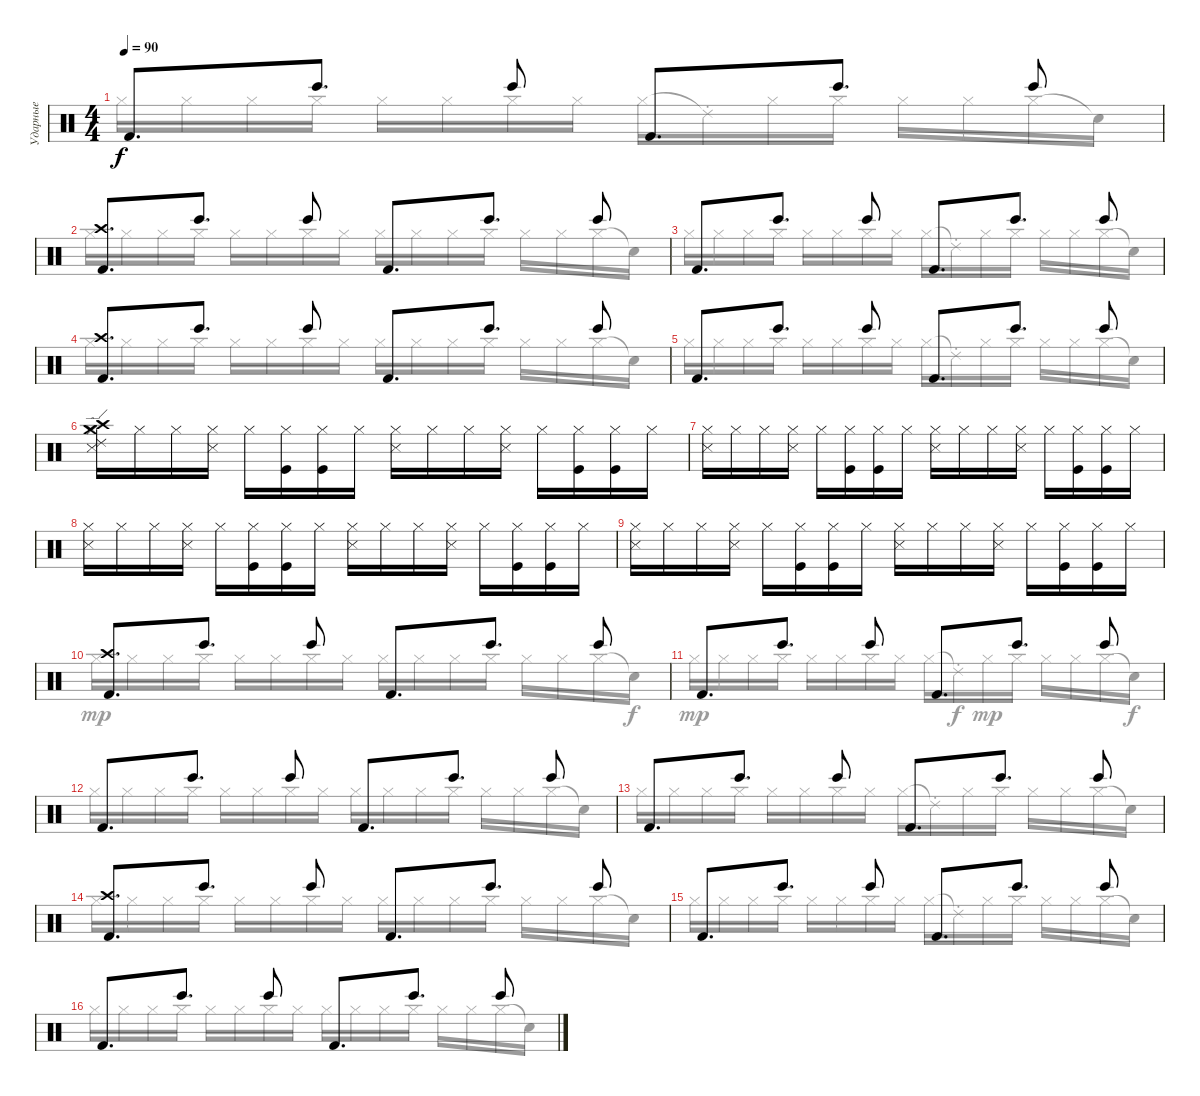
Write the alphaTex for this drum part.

\track ("Ударные" "Ударные") {instrument percussion}
\staff {score}
\articulation defaults
\voice
\ts (4 4)
\tempo 90
\clef neutral
\ks c "Kick (hit) 2".8{d dy f} "Bongo High (hit)".8{d} "Bongo High (hit)".8 "Kick (hit) 2".8{d} "Bongo High (hit)".8{d} "Bongo High (hit)".8
|
("Kick (hit) 2" "Crash high (hit)").8{d} "Bongo High (hit)".8{d} "Bongo High (hit)".8 "Kick (hit) 2".8{d} "Bongo High (hit)".8{d} "Bongo High (hit)".8 |
"Kick (hit) 2".8{d} "Bongo High (hit)".8{d} "Bongo High (hit)".8 "Kick (hit) 2".8{d} "Bongo High (hit)".8{d} "Bongo High (hit)".8 |
("Kick (hit) 2" "Crash high (hit)").8{d} "Bongo High (hit)".8{d} "Bongo High (hit)".8 "Kick (hit) 2".8{d} "Bongo High (hit)".8{d} "Bongo High (hit)".8 |
"Kick (hit) 2".8{d} "Bongo High (hit)".8{d} "Bongo High (hit)".8 "Kick (hit) 2".8{d} "Bongo High (hit)".8{d} "Bongo High (hit)".8 |
("Hi-Hat (closed)" "Metronome (hit)" "Ride (edge) 2" "Crash medium (hit)" "Crash high (hit)").16 "Hi-Hat (closed)".16 "Hi-Hat (closed)".16 ("Hi-Hat (closed)" "Metronome (hit)").16 "Hi-Hat (closed)".16 ("Hi-Hat (closed)" "Kick (hit)").16 ("Hi-Hat (closed)" "Kick (hit)").16 "Hi-Hat (closed)".16 ("Hi-Hat (closed)" "Metronome (hit)").16 "Hi-Hat (closed)".16 "Hi-Hat (closed)".16 ("Hi-Hat (closed)" "Metronome (hit)").16 "Hi-Hat (closed)".16 ("Hi-Hat (closed)" "Kick (hit)").16 ("Hi-Hat (closed)" "Kick (hit)").16 "Hi-Hat (closed)".16 |
("Hi-Hat (closed)" "Metronome (hit)").16 "Hi-Hat (closed)".16 "Hi-Hat (closed)".16 ("Hi-Hat (closed)" "Metronome (hit)").16 "Hi-Hat (closed)".16 ("Hi-Hat (closed)" "Kick (hit)").16 ("Hi-Hat (closed)" "Kick (hit)").16 "Hi-Hat (closed)".16 ("Hi-Hat (closed)" "Metronome (hit)").16 "Hi-Hat (closed)".16 "Hi-Hat (closed)".16 ("Hi-Hat (closed)" "Metronome (hit)").16 "Hi-Hat (closed)".16 ("Hi-Hat (closed)" "Kick (hit)").16 ("Hi-Hat (closed)" "Kick (hit)").16 "Hi-Hat (closed)".16 |
("Hi-Hat (closed)" "Metronome (hit)").16 "Hi-Hat (closed)".16 "Hi-Hat (closed)".16 ("Hi-Hat (closed)" "Metronome (hit)").16 "Hi-Hat (closed)".16 ("Hi-Hat (closed)" "Kick (hit)").16 ("Hi-Hat (closed)" "Kick (hit)").16 "Hi-Hat (closed)".16 ("Hi-Hat (closed)" "Metronome (hit)").16 "Hi-Hat (closed)".16 "Hi-Hat (closed)".16 ("Hi-Hat (closed)" "Metronome (hit)").16 "Hi-Hat (closed)".16 ("Hi-Hat (closed)" "Kick (hit)").16 ("Hi-Hat (closed)" "Kick (hit)").16 "Hi-Hat (closed)".16 |
("Hi-Hat (closed)" "Metronome (hit)").16 "Hi-Hat (closed)".16 "Hi-Hat (closed)".16 ("Hi-Hat (closed)" "Metronome (hit)").16 "Hi-Hat (closed)".16 ("Hi-Hat (closed)" "Kick (hit)").16 ("Hi-Hat (closed)" "Kick (hit)").16 "Hi-Hat (closed)".16 ("Hi-Hat (closed)" "Metronome (hit)").16 "Hi-Hat (closed)".16 "Hi-Hat (closed)".16 ("Hi-Hat (closed)" "Metronome (hit)").16 "Hi-Hat (closed)".16 ("Hi-Hat (closed)" "Kick (hit)").16 ("Hi-Hat (closed)" "Kick (hit)").16 "Hi-Hat (closed)".16 |
("Kick (hit) 2" "Crash high (hit)").8{d} "Bongo High (hit)".8{d} "Bongo High (hit)".8 "Kick (hit) 2".8{d} "Bongo High (hit)".8{d} "Bongo High (hit)".8 |
"Kick (hit) 2".8{d} "Bongo High (hit)".8{d} "Bongo High (hit)".8 "Kick (hit) 2".8{d} "Bongo High (hit)".8{d} "Bongo High (hit)".8 |
"Kick (hit) 2".8{d} "Bongo High (hit)".8{d} "Bongo High (hit)".8 "Kick (hit) 2".8{d} "Bongo High (hit)".8{d} "Bongo High (hit)".8 |
"Kick (hit) 2".8{d} "Bongo High (hit)".8{d} "Bongo High (hit)".8 "Kick (hit) 2".8{d} "Bongo High (hit)".8{d} "Bongo High (hit)".8 |
("Kick (hit) 2" "Crash high (hit)").8{d} "Bongo High (hit)".8{d} "Bongo High (hit)".8 "Kick (hit) 2".8{d} "Bongo High (hit)".8{d} "Bongo High (hit)".8 |
"Kick (hit) 2".8{d} "Bongo High (hit)".8{d} "Bongo High (hit)".8 "Kick (hit) 2".8{d} "Bongo High (hit)".8{d} "Bongo High (hit)".8 |
"Kick (hit) 2".8{d} "Bongo High (hit)".8{d} "Bongo High (hit)".8 "Kick (hit) 2".8{d} "Bongo High (hit)".8{d} "Bongo High (hit)".8
\voice
\clef neutral
\ottava regular
\simile none
\ks c "Hi-Hat (closed)".16{dy f} "Hi-Hat (closed)".16 "Hi-Hat (closed)".16 "Hi-Hat (closed)".16 "Hi-Hat (closed)".16 "Hi-Hat (closed)".16 "Hi-Hat (closed)".16 "Hi-Hat (closed)".16 "Hi-Hat (closed)".16 "Ride (choke) 2"{t}.16 "Hi-Hat (closed)".16 "Hi-Hat (closed)".16 "Hi-Hat (closed)".16 "Hi-Hat (closed)".16 "Hi-Hat (closed)".16 "Snare (hit)"{t}.16
|
"Hi-Hat (closed)".16 "Hi-Hat (closed)".16 "Hi-Hat (closed)".16 "Hi-Hat (closed)".16 "Hi-Hat (closed)".16 "Hi-Hat (closed)".16 "Hi-Hat (closed)".16 "Hi-Hat (closed)".16 "Hi-Hat (closed)".16 "Hi-Hat (closed)".16 "Hi-Hat (closed)".16 "Hi-Hat (closed)".16 "Hi-Hat (closed)".16 "Hi-Hat (closed)".16 "Hi-Hat (closed)".16 "Snare (hit)"{t}.16 |
"Hi-Hat (closed)".16 "Hi-Hat (closed)".16 "Hi-Hat (closed)".16 "Hi-Hat (closed)".16 "Hi-Hat (closed)".16 "Hi-Hat (closed)".16 "Hi-Hat (closed)".16 "Hi-Hat (closed)".16 "Hi-Hat (closed)".16 "Ride (choke) 2"{t}.16 "Hi-Hat (closed)".16 "Hi-Hat (closed)".16 "Hi-Hat (closed)".16 "Hi-Hat (closed)".16 "Hi-Hat (closed)".16 "Snare (hit)"{t}.16 |
"Hi-Hat (closed)".16 "Hi-Hat (closed)".16 "Hi-Hat (closed)".16 "Hi-Hat (closed)".16 "Hi-Hat (closed)".16 "Hi-Hat (closed)".16 "Hi-Hat (closed)".16 "Hi-Hat (closed)".16 "Hi-Hat (closed)".16 "Hi-Hat (closed)".16 "Hi-Hat (closed)".16 "Hi-Hat (closed)".16 "Hi-Hat (closed)".16 "Hi-Hat (closed)".16 "Hi-Hat (closed)".16 "Snare (hit)"{t}.16 |
"Hi-Hat (closed)".16 "Hi-Hat (closed)".16 "Hi-Hat (closed)".16 "Hi-Hat (closed)".16 "Hi-Hat (closed)".16 "Hi-Hat (closed)".16 "Hi-Hat (closed)".16 "Hi-Hat (closed)".16 "Hi-Hat (closed)".16 "Ride (choke) 2"{t}.16 "Hi-Hat (closed)".16 "Hi-Hat (closed)".16 "Hi-Hat (closed)".16 "Hi-Hat (closed)".16 "Hi-Hat (closed)".16 "Snare (hit)"{t}.16 |
|
|
|
|
"Hi-Hat (closed)".16{dy mp} "Hi-Hat (closed)".16 "Hi-Hat (closed)".16 "Hi-Hat (closed)".16 "Hi-Hat (closed)".16 "Hi-Hat (closed)".16 "Hi-Hat (closed)".16 "Hi-Hat (closed)".16 "Hi-Hat (closed)".16 "Hi-Hat (closed)".16 "Hi-Hat (closed)".16 "Hi-Hat (closed)".16 "Hi-Hat (closed)".16 "Hi-Hat (closed)".16 "Hi-Hat (closed)".16 "Snare (hit)"{t}.16{dy f} |
"Hi-Hat (closed)".16{dy mp} "Hi-Hat (closed)".16 "Hi-Hat (closed)".16 "Hi-Hat (closed)".16 "Hi-Hat (closed)".16 "Hi-Hat (closed)".16 "Hi-Hat (closed)".16 "Hi-Hat (closed)".16 "Hi-Hat (closed)".16 "Ride (choke) 2"{t}.16{dy f} "Hi-Hat (closed)".16{dy mp} "Hi-Hat (closed)".16 "Hi-Hat (closed)".16 "Hi-Hat (closed)".16 "Hi-Hat (closed)".16 "Snare (hit)"{t}.16{dy f} |
"Hi-Hat (closed)".16 "Hi-Hat (closed)".16 "Hi-Hat (closed)".16 "Hi-Hat (closed)".16 "Hi-Hat (closed)".16 "Hi-Hat (closed)".16 "Hi-Hat (closed)".16 "Hi-Hat (closed)".16 "Hi-Hat (closed)".16 "Hi-Hat (closed)".16 "Hi-Hat (closed)".16 "Hi-Hat (closed)".16 "Hi-Hat (closed)".16 "Hi-Hat (closed)".16 "Hi-Hat (closed)".16 "Snare (hit)"{t}.16 |
"Hi-Hat (closed)".16 "Hi-Hat (closed)".16 "Hi-Hat (closed)".16 "Hi-Hat (closed)".16 "Hi-Hat (closed)".16 "Hi-Hat (closed)".16 "Hi-Hat (closed)".16 "Hi-Hat (closed)".16 "Hi-Hat (closed)".16 "Ride (choke) 2"{t}.16 "Hi-Hat (closed)".16 "Hi-Hat (closed)".16 "Hi-Hat (closed)".16 "Hi-Hat (closed)".16 "Hi-Hat (closed)".16 "Snare (hit)"{t}.16 |
"Hi-Hat (closed)".16 "Hi-Hat (closed)".16 "Hi-Hat (closed)".16 "Hi-Hat (closed)".16 "Hi-Hat (closed)".16 "Hi-Hat (closed)".16 "Hi-Hat (closed)".16 "Hi-Hat (closed)".16 "Hi-Hat (closed)".16 "Hi-Hat (closed)".16 "Hi-Hat (closed)".16 "Hi-Hat (closed)".16 "Hi-Hat (closed)".16 "Hi-Hat (closed)".16 "Hi-Hat (closed)".16 "Snare (hit)"{t}.16 |
"Hi-Hat (closed)".16 "Hi-Hat (closed)".16 "Hi-Hat (closed)".16 "Hi-Hat (closed)".16 "Hi-Hat (closed)".16 "Hi-Hat (closed)".16 "Hi-Hat (closed)".16 "Hi-Hat (closed)".16 "Hi-Hat (closed)".16 "Ride (choke) 2"{t}.16 "Hi-Hat (closed)".16 "Hi-Hat (closed)".16 "Hi-Hat (closed)".16 "Hi-Hat (closed)".16 "Hi-Hat (closed)".16 "Snare (hit)"{t}.16 |
"Hi-Hat (closed)".16 "Hi-Hat (closed)".16 "Hi-Hat (closed)".16 "Hi-Hat (closed)".16 "Hi-Hat (closed)".16 "Hi-Hat (closed)".16 "Hi-Hat (closed)".16 "Hi-Hat (closed)".16 "Hi-Hat (closed)".16 "Hi-Hat (closed)".16 "Hi-Hat (closed)".16 "Hi-Hat (closed)".16 "Hi-Hat (closed)".16 "Hi-Hat (closed)".16 "Hi-Hat (closed)".16 "Snare (hit)"{t}.16
